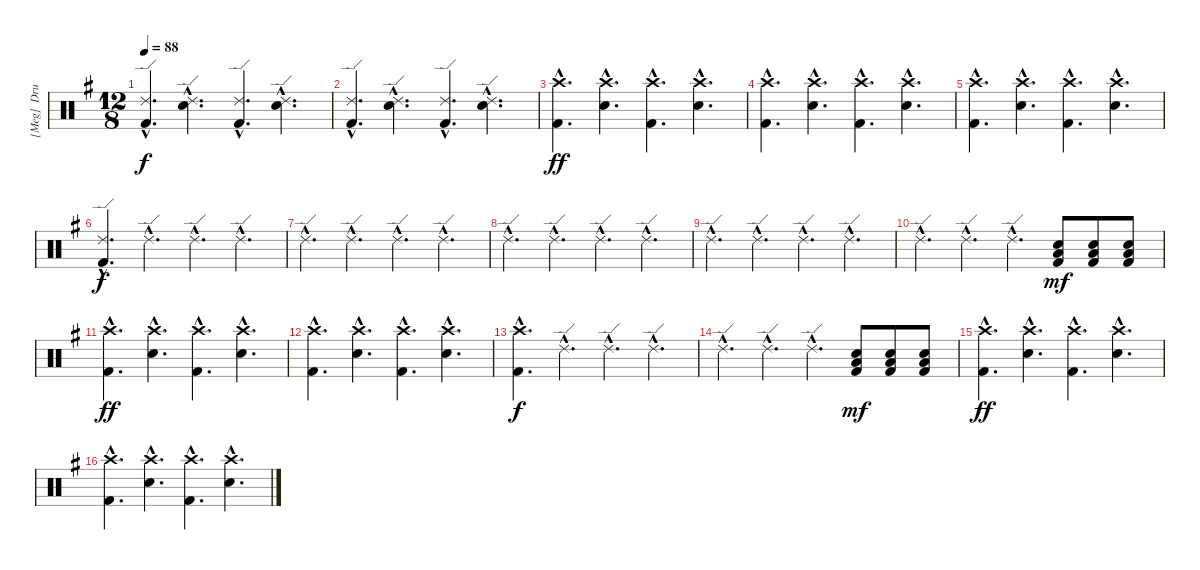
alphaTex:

\track ("[Meg]  Drums" "[Meg]  Dru") {instrument percussion}
\staff {score}
\articulation defaults
\ts (12 8)
\tempo 88
\clef neutral
\ks g
("Ride (edge) 2"{hac} "Kick (hit) 2"{hac}).4{d dy f} ("Ride (edge) 2"{hac} "Snare (hit) 2"{hac}).4{d} ("Ride (edge) 2"{hac} "Kick (hit) 2"{hac}).4{d} ("Ride (edge) 2"{hac} "Snare (hit) 2"{hac}).4{d} |
("Ride (edge) 2"{hac} "Kick (hit) 2"{hac}).4{d} ("Ride (edge) 2"{hac} "Snare (hit) 2"{hac}).4{d} ("Ride (edge) 2"{hac} "Kick (hit) 2"{hac}).4{d} ("Ride (edge) 2"{hac} "Snare (hit) 2"{hac}).4{d} |
("Crash high (hit)"{hac} "Kick (hit) 2"{hac}).4{d dy ff} ("Crash high (hit)"{hac} "Snare (hit) 2"{hac}).4{d} ("Crash high (hit)"{hac} "Kick (hit) 2"{hac}).4{d} ("Crash high (hit)"{hac} "Snare (hit) 2"{hac}).4{d} |
("Crash high (hit)"{hac} "Kick (hit) 2"{hac}).4{d} ("Crash high (hit)"{hac} "Snare (hit) 2"{hac}).4{d} ("Crash high (hit)"{hac} "Kick (hit) 2"{hac}).4{d} ("Crash high (hit)"{hac} "Snare (hit) 2"{hac}).4{d} |
("Crash high (hit)"{hac} "Kick (hit) 2"{hac}).4{d} ("Crash high (hit)"{hac} "Snare (hit) 2"{hac}).4{d} ("Crash high (hit)"{hac} "Kick (hit) 2"{hac}).4{d} ("Crash high (hit)"{hac} "Snare (hit) 2"{hac}).4{d} |
("Ride (edge) 2"{hac} "Kick (hit) 2"{hac}).4{d dy f} "Ride (edge) 2"{hac}.4{d} "Ride (edge) 2"{hac}.4{d} "Ride (edge) 2"{hac}.4{d} |
"Ride (edge) 2"{hac}.4{d} "Ride (edge) 2"{hac}.4{d} "Ride (edge) 2"{hac}.4{d} "Ride (edge) 2"{hac}.4{d} |
"Ride (edge) 2"{hac}.4{d} "Ride (edge) 2"{hac}.4{d} "Ride (edge) 2"{hac}.4{d} "Ride (edge) 2"{hac}.4{d} |
"Ride (edge) 2"{hac}.4{d} "Ride (edge) 2"{hac}.4{d} "Ride (edge) 2"{hac}.4{d} "Ride (edge) 2"{hac}.4{d} |
"Ride (edge) 2"{hac}.4{d} "Ride (edge) 2"{hac}.4{d} "Ride (edge) 2"{hac}.4{d} ("Snare (hit) 2" "Low Floor Tom (hit)" "Kick (hit) 2").8{dy mf} ("Snare (hit) 2" "Low Floor Tom (hit)" "Kick (hit) 2").8 ("Snare (hit) 2" "Low Floor Tom (hit)" "Kick (hit) 2").8 |
("Crash high (hit)"{hac} "Kick (hit) 2"{hac}).4{d dy ff} ("Crash high (hit)"{hac} "Snare (hit) 2"{hac}).4{d} ("Crash high (hit)"{hac} "Kick (hit) 2"{hac}).4{d} ("Crash high (hit)"{hac} "Snare (hit) 2"{hac}).4{d} |
("Crash high (hit)"{hac} "Kick (hit) 2"{hac}).4{d} ("Crash high (hit)"{hac} "Snare (hit) 2"{hac}).4{d} ("Crash high (hit)"{hac} "Kick (hit) 2"{hac}).4{d} ("Crash high (hit)"{hac} "Snare (hit) 2"{hac}).4{d} |
("Crash high (hit)"{hac} "Kick (hit) 2"{hac}).4{d dy f} "Ride (edge) 2"{hac}.4{d} "Ride (edge) 2"{hac}.4{d} "Ride (edge) 2"{hac}.4{d} |
"Ride (edge) 2"{hac}.4{d} "Ride (edge) 2"{hac}.4{d} "Ride (edge) 2"{hac}.4{d} ("Snare (hit) 2" "Low Floor Tom (hit)" "Kick (hit) 2").8{dy mf} ("Snare (hit) 2" "Low Floor Tom (hit)" "Kick (hit) 2").8 ("Snare (hit) 2" "Low Floor Tom (hit)" "Kick (hit) 2").8 |
("Crash high (hit)"{hac} "Kick (hit) 2"{hac}).4{d dy ff} ("Crash high (hit)"{hac} "Snare (hit) 2"{hac}).4{d} ("Crash high (hit)"{hac} "Kick (hit) 2"{hac}).4{d} ("Crash high (hit)"{hac} "Snare (hit) 2"{hac}).4{d} |
("Crash high (hit)"{hac} "Kick (hit) 2"{hac}).4{d} ("Crash high (hit)"{hac} "Snare (hit) 2"{hac}).4{d} ("Crash high (hit)"{hac} "Kick (hit) 2"{hac}).4{d} ("Crash high (hit)"{hac} "Snare (hit) 2"{hac}).4{d}
